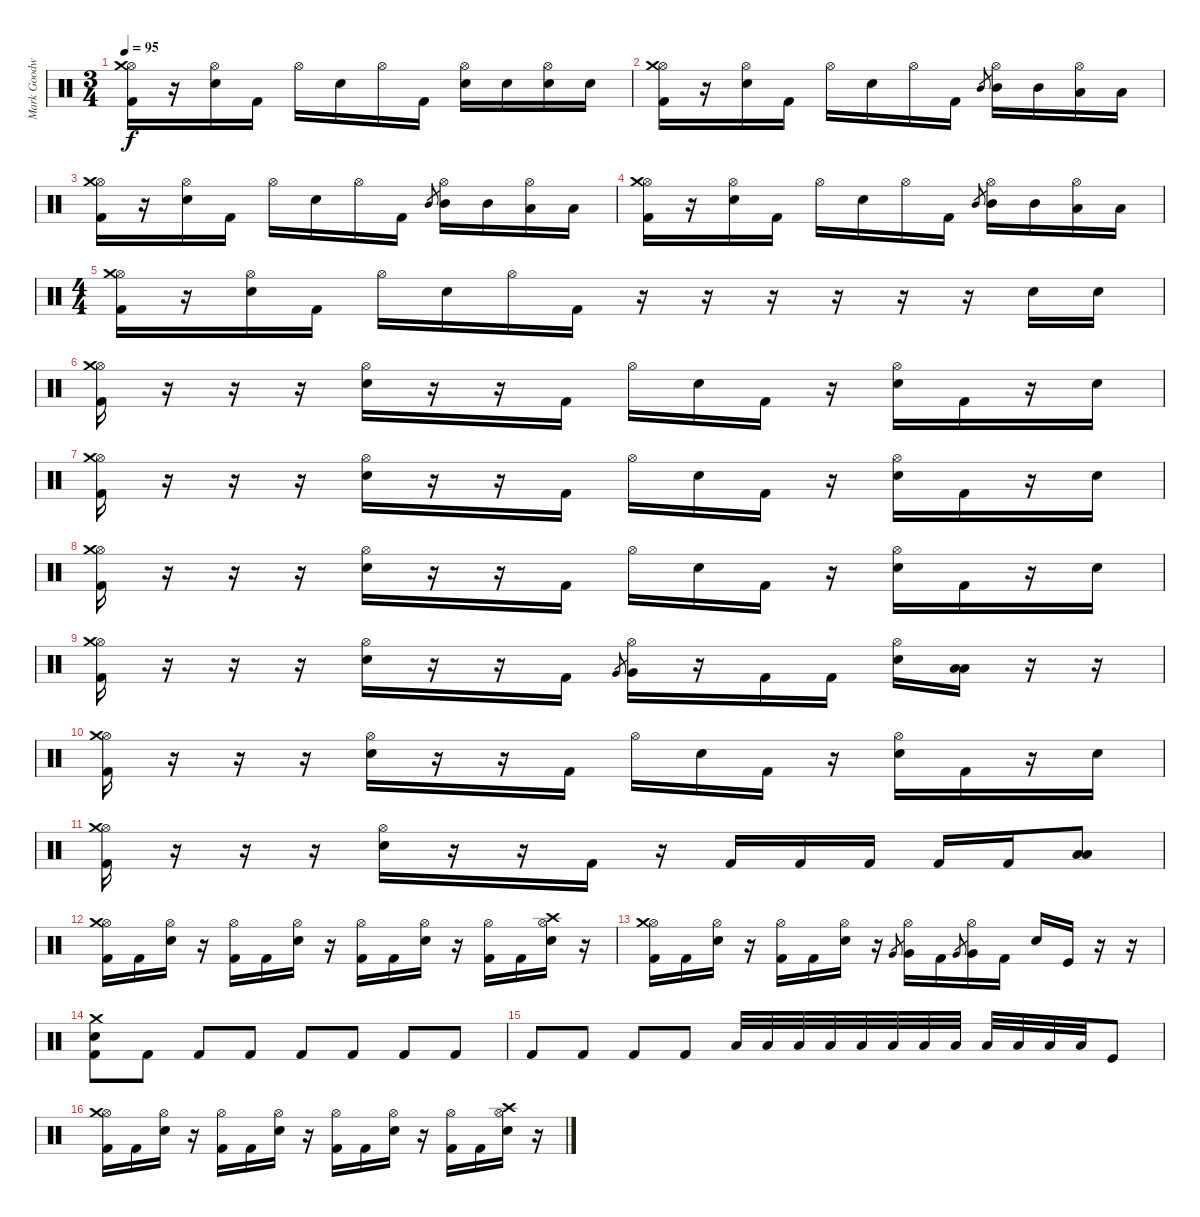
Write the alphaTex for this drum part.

\track ("Mark Goodwin" "Mark Goodw") {instrument percussion}
\staff {score}
\articulation defaults
\ts (3 4)
\tempo 95
\clef neutral
\ks c
("Hi-Hat (open)" "Crash medium (hit)" "Kick (hit) 2").16{dy f} r.16 ("Hi-Hat (open)" "Electric Snare (hit)").16 "Kick (hit) 2".16 "Hi-Hat (open)".16 "Electric Snare (hit)".16 "Hi-Hat (open)".16 "Kick (hit) 2".16 ("Hi-Hat (open)" "Electric Snare (hit)").16 "Electric Snare (hit)".16 ("Hi-Hat (open)" "Electric Snare (hit)").16 "Electric Snare (hit)".16 |
("Hi-Hat (open)" "Crash medium (hit)" "Kick (hit) 2").16 r.16 ("Hi-Hat (open)" "Electric Snare (hit)").16 "Kick (hit) 2".16 "Hi-Hat (open)".16 "Electric Snare (hit)".16 "Hi-Hat (open)".16 "Kick (hit) 2".16 "Mid Tom (hit)".8{gr} ("Hi-Hat (open)" "Mid Tom (hit)").16 "Mid Tom (hit)".16 ("Hi-Hat (open)" "Low Floor Tom (hit)").16 "Low Floor Tom (hit)".16 |
("Hi-Hat (open)" "Crash medium (hit)" "Kick (hit) 2").16 r.16 ("Hi-Hat (open)" "Electric Snare (hit)").16 "Kick (hit) 2".16 "Hi-Hat (open)".16 "Electric Snare (hit)".16 "Hi-Hat (open)".16 "Kick (hit) 2".16 "Mid Tom (hit)".8{gr} ("Hi-Hat (open)" "Mid Tom (hit)").16 "Mid Tom (hit)".16 ("Hi-Hat (open)" "Low Floor Tom (hit)").16 "Low Floor Tom (hit)".16 |
("Hi-Hat (open)" "Crash medium (hit)" "Kick (hit) 2").16 r.16 ("Hi-Hat (open)" "Electric Snare (hit)").16 "Kick (hit) 2".16 "Hi-Hat (open)".16 "Electric Snare (hit)".16 "Hi-Hat (open)".16 "Kick (hit) 2".16 "Mid Tom (hit)".8{gr} ("Hi-Hat (open)" "Mid Tom (hit)").16 "Mid Tom (hit)".16 ("Hi-Hat (open)" "Low Floor Tom (hit)").16 "Low Floor Tom (hit)".16 |
\ts (4 4)
("Hi-Hat (open)" "Crash medium (hit)" "Kick (hit) 2").16 r.16 ("Hi-Hat (open)" "Electric Snare (hit)").16 "Kick (hit) 2".16 "Hi-Hat (open)".16 "Electric Snare (hit)".16 "Hi-Hat (open)".16 "Kick (hit) 2".16 r.16 r.16 r.16 r.16 r.16 r.16 "Electric Snare (hit)".16 "Electric Snare (hit)".16 |
("Hi-Hat (open)" "Crash medium (hit)" "Kick (hit) 2").16 r.16 r.16 r.16 ("Hi-Hat (open)" "Electric Snare (hit)").16 r.16 r.16 "Kick (hit) 2".16 "Hi-Hat (open)".16 "Electric Snare (hit)".16 "Kick (hit) 2".16 r.16 ("Hi-Hat (open)" "Electric Snare (hit)").16 "Kick (hit) 2".16 r.16 "Electric Snare (hit)".16 |
("Hi-Hat (open)" "Crash medium (hit)" "Kick (hit) 2").16 r.16 r.16 r.16 ("Hi-Hat (open)" "Electric Snare (hit)").16 r.16 r.16 "Kick (hit) 2".16 "Hi-Hat (open)".16 "Electric Snare (hit)".16 "Kick (hit) 2".16 r.16 ("Hi-Hat (open)" "Electric Snare (hit)").16 "Kick (hit) 2".16 r.16 "Electric Snare (hit)".16 |
("Hi-Hat (open)" "Crash medium (hit)" "Kick (hit) 2").16 r.16 r.16 r.16 ("Hi-Hat (open)" "Electric Snare (hit)").16 r.16 r.16 "Kick (hit) 2".16 "Hi-Hat (open)".16 "Electric Snare (hit)".16 "Kick (hit) 2".16 r.16 ("Hi-Hat (open)" "Electric Snare (hit)").16 "Kick (hit) 2".16 r.16 "Electric Snare (hit)".16 |
("Hi-Hat (open)" "Crash medium (hit)" "Kick (hit) 2").16 r.16 r.16 r.16 ("Hi-Hat (open)" "Electric Snare (hit)").16 r.16 r.16 "Kick (hit) 2".16 "Very Low Tom (hit)".8{gr} ("Hi-Hat (open)" "Very Low Tom (hit)").16 r.16 "Kick (hit) 2".16 "Kick (hit) 2".16 ("Hi-Hat (open)" "Electric Snare (hit)").16 ("Low Floor Tom (hit)" "Low Floor Tom (hit)").16 r.16 r.16 |
("Hi-Hat (open)" "Crash medium (hit)" "Kick (hit) 2").16 r.16 r.16 r.16 ("Hi-Hat (open)" "Electric Snare (hit)").16 r.16 r.16 "Kick (hit) 2".16 "Hi-Hat (open)".16 "Electric Snare (hit)".16 "Kick (hit) 2".16 r.16 ("Hi-Hat (open)" "Electric Snare (hit)").16 "Kick (hit) 2".16 r.16 "Electric Snare (hit)".16 |
("Hi-Hat (open)" "Crash medium (hit)" "Kick (hit) 2").16 r.16 r.16 r.16 ("Hi-Hat (open)" "Electric Snare (hit)").16 r.16 r.16 "Kick (hit) 2".16 r.16 "Kick (hit) 2".16 "Kick (hit) 2".16 "Kick (hit) 2".16 "Kick (hit) 2".16 "Kick (hit) 2".16 ("Low Floor Tom (hit)" "Low Floor Tom (hit)").8 |
("Hi-Hat (open)" "Crash medium (hit)" "Kick (hit) 2").16 "Kick (hit) 2".16 ("Hi-Hat (open)" "Electric Snare (hit)").16 r.16 ("Hi-Hat (open)" "Kick (hit) 2").16 "Kick (hit) 2".16 ("Hi-Hat (open)" "Electric Snare (hit)").16 r.16 ("Hi-Hat (open)" "Kick (hit) 2").16 "Kick (hit) 2".16 ("Hi-Hat (open)" "Electric Snare (hit)").16 r.16 ("Hi-Hat (open)" "Kick (hit) 2").16 "Kick (hit) 2".16 ("Hi-Hat (open)" "Crash high (hit)" "Electric Snare (hit)").16 r.16 |
("Hi-Hat (open)" "Crash medium (hit)" "Kick (hit) 2").16 "Kick (hit) 2".16 ("Hi-Hat (open)" "Electric Snare (hit)").16 r.16 ("Hi-Hat (open)" "Kick (hit) 2").16 "Kick (hit) 2".16 ("Hi-Hat (open)" "Electric Snare (hit)").16 r.16 "Very Low Tom (hit)".8{gr} ("Hi-Hat (open)" "Very Low Tom (hit)").16 "Kick (hit) 2".16 "Very Low Tom (hit)".8{gr} ("Hi-Hat (open)" "Very Low Tom (hit)").16 "Kick (hit) 2".16 "Electric Snare (hit)".16 "Kick (hit)".16 r.16 r.16 |
("Crash medium (hit)" "Electric Snare (hit)" "Kick (hit) 2").8 "Kick (hit) 2".8 "Kick (hit) 2".8 "Kick (hit) 2".8 "Kick (hit) 2".8 "Kick (hit) 2".8 "Kick (hit) 2".8 "Kick (hit) 2".8 |
"Kick (hit) 2".8 "Kick (hit) 2".8 "Kick (hit) 2".8 "Kick (hit) 2".8 "Low Floor Tom (hit)".32 "Low Floor Tom (hit)".32 "Low Floor Tom (hit)".32 "Low Floor Tom (hit)".32 "Low Floor Tom (hit)".32 "Low Floor Tom (hit)".32 "Low Floor Tom (hit)".32 "Low Floor Tom (hit)".32 "Low Floor Tom (hit)".32 "Low Floor Tom (hit)".32 "Low Floor Tom (hit)".32 "Low Floor Tom (hit)".32 "Kick (hit)".8 |
("Hi-Hat (open)" "Crash medium (hit)" "Kick (hit) 2").16 "Kick (hit) 2".16 ("Hi-Hat (open)" "Electric Snare (hit)").16 r.16 ("Hi-Hat (open)" "Kick (hit) 2").16 "Kick (hit) 2".16 ("Hi-Hat (open)" "Electric Snare (hit)").16 r.16 ("Hi-Hat (open)" "Kick (hit) 2").16 "Kick (hit) 2".16 ("Hi-Hat (open)" "Electric Snare (hit)").16 r.16 ("Hi-Hat (open)" "Kick (hit) 2").16 "Kick (hit) 2".16 ("Hi-Hat (open)" "Crash high (hit)" "Electric Snare (hit)").16 r.16
